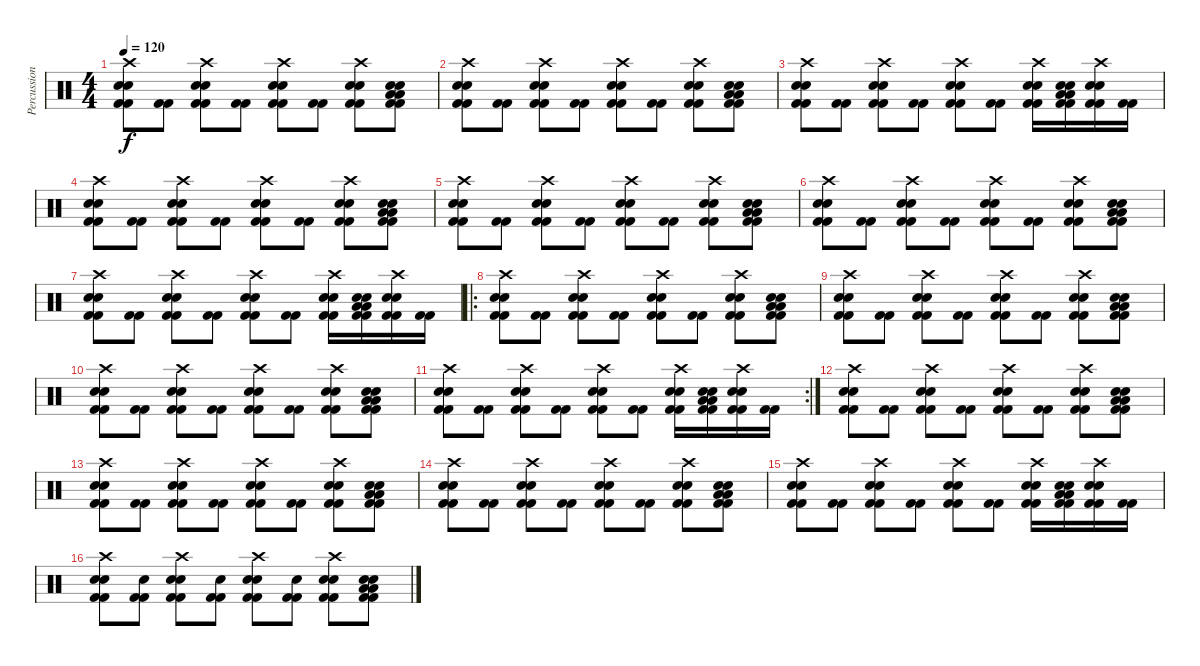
\track ("Percussions" "Percussion") {instrument percussion}
\staff {score}
\articulation defaults
\ts (4 4)
\tempo 120
\clef neutral
\ks c
("Crash high (hit)" "Electric Snare (hit)" "Electric Snare (hit)" "Kick (hit) 2" "Kick (hit) 2").8{dy f} ("Kick (hit) 2" "Kick (hit) 2").8 ("Crash high (hit)" "Electric Snare (hit)" "Electric Snare (hit)" "Kick (hit) 2" "Kick (hit) 2").8 ("Kick (hit) 2" "Kick (hit) 2").8 ("Crash high (hit)" "Electric Snare (hit)" "Electric Snare (hit)" "Kick (hit) 2" "Kick (hit) 2").8 ("Kick (hit) 2" "Kick (hit) 2").8 ("Crash high (hit)" "Electric Snare (hit)" "Electric Snare (hit)" "Kick (hit) 2" "Kick (hit) 2").8 ("Low Floor Tom (hit)" "Low Floor Tom (hit)" "Electric Snare (hit)" "Electric Snare (hit)" "Kick (hit) 2" "Kick (hit) 2").8 |
("Crash high (hit)" "Electric Snare (hit)" "Electric Snare (hit)" "Kick (hit) 2" "Kick (hit) 2").8 ("Kick (hit) 2" "Kick (hit) 2").8 ("Crash high (hit)" "Electric Snare (hit)" "Electric Snare (hit)" "Kick (hit) 2" "Kick (hit) 2").8 ("Kick (hit) 2" "Kick (hit) 2").8 ("Crash high (hit)" "Electric Snare (hit)" "Electric Snare (hit)" "Kick (hit) 2" "Kick (hit) 2").8 ("Kick (hit) 2" "Kick (hit) 2").8 ("Crash high (hit)" "Electric Snare (hit)" "Electric Snare (hit)" "Kick (hit) 2" "Kick (hit) 2").8 ("Low Floor Tom (hit)" "Low Floor Tom (hit)" "Electric Snare (hit)" "Electric Snare (hit)" "Kick (hit) 2" "Kick (hit) 2").8 |
("Crash high (hit)" "Electric Snare (hit)" "Electric Snare (hit)" "Kick (hit) 2" "Kick (hit) 2").8 ("Kick (hit) 2" "Kick (hit) 2").8 ("Crash high (hit)" "Electric Snare (hit)" "Electric Snare (hit)" "Kick (hit) 2" "Kick (hit) 2").8 ("Kick (hit) 2" "Kick (hit) 2").8 ("Crash high (hit)" "Electric Snare (hit)" "Electric Snare (hit)" "Kick (hit) 2" "Kick (hit) 2").8 ("Kick (hit) 2" "Kick (hit) 2").8 ("Crash high (hit)" "Electric Snare (hit)" "Electric Snare (hit)" "Kick (hit) 2" "Kick (hit) 2").16 ("Low Floor Tom (hit)" "Low Floor Tom (hit)" "Electric Snare (hit)" "Electric Snare (hit)" "Kick (hit) 2" "Kick (hit) 2").16 ("Crash high (hit)" "Electric Snare (hit)" "Electric Snare (hit)" "Kick (hit) 2" "Kick (hit) 2").16 ("Kick (hit) 2" "Kick (hit) 2").16 |
("Crash high (hit)" "Electric Snare (hit)" "Electric Snare (hit)" "Kick (hit) 2" "Kick (hit) 2").8 ("Kick (hit) 2" "Kick (hit) 2").8 ("Crash high (hit)" "Electric Snare (hit)" "Electric Snare (hit)" "Kick (hit) 2" "Kick (hit) 2").8 ("Kick (hit) 2" "Kick (hit) 2").8 ("Crash high (hit)" "Electric Snare (hit)" "Electric Snare (hit)" "Kick (hit) 2" "Kick (hit) 2").8 ("Kick (hit) 2" "Kick (hit) 2").8 ("Crash high (hit)" "Electric Snare (hit)" "Electric Snare (hit)" "Kick (hit) 2" "Kick (hit) 2").8 ("Low Floor Tom (hit)" "Low Floor Tom (hit)" "Electric Snare (hit)" "Electric Snare (hit)" "Kick (hit) 2" "Kick (hit) 2").8 |
("Crash high (hit)" "Electric Snare (hit)" "Electric Snare (hit)" "Kick (hit) 2" "Kick (hit) 2").8 ("Kick (hit) 2" "Kick (hit) 2").8 ("Crash high (hit)" "Electric Snare (hit)" "Electric Snare (hit)" "Kick (hit) 2" "Kick (hit) 2").8 ("Kick (hit) 2" "Kick (hit) 2").8 ("Crash high (hit)" "Electric Snare (hit)" "Electric Snare (hit)" "Kick (hit) 2" "Kick (hit) 2").8 ("Kick (hit) 2" "Kick (hit) 2").8 ("Crash high (hit)" "Electric Snare (hit)" "Electric Snare (hit)" "Kick (hit) 2" "Kick (hit) 2").8 ("Low Floor Tom (hit)" "Low Floor Tom (hit)" "Electric Snare (hit)" "Electric Snare (hit)" "Kick (hit) 2" "Kick (hit) 2").8 |
("Crash high (hit)" "Electric Snare (hit)" "Electric Snare (hit)" "Kick (hit) 2" "Kick (hit) 2").8 ("Kick (hit) 2" "Kick (hit) 2").8 ("Crash high (hit)" "Electric Snare (hit)" "Electric Snare (hit)" "Kick (hit) 2" "Kick (hit) 2").8 ("Kick (hit) 2" "Kick (hit) 2").8 ("Crash high (hit)" "Electric Snare (hit)" "Electric Snare (hit)" "Kick (hit) 2" "Kick (hit) 2").8 ("Kick (hit) 2" "Kick (hit) 2").8 ("Crash high (hit)" "Electric Snare (hit)" "Electric Snare (hit)" "Kick (hit) 2" "Kick (hit) 2").8 ("Low Floor Tom (hit)" "Low Floor Tom (hit)" "Electric Snare (hit)" "Electric Snare (hit)" "Kick (hit) 2" "Kick (hit) 2").8 |
("Crash high (hit)" "Electric Snare (hit)" "Electric Snare (hit)" "Kick (hit) 2" "Kick (hit) 2").8 ("Kick (hit) 2" "Kick (hit) 2").8 ("Crash high (hit)" "Electric Snare (hit)" "Electric Snare (hit)" "Kick (hit) 2" "Kick (hit) 2").8 ("Kick (hit) 2" "Kick (hit) 2").8 ("Crash high (hit)" "Electric Snare (hit)" "Electric Snare (hit)" "Kick (hit) 2" "Kick (hit) 2").8 ("Kick (hit) 2" "Kick (hit) 2").8 ("Crash high (hit)" "Electric Snare (hit)" "Electric Snare (hit)" "Kick (hit) 2" "Kick (hit) 2").16 ("Low Floor Tom (hit)" "Low Floor Tom (hit)" "Electric Snare (hit)" "Electric Snare (hit)" "Kick (hit) 2" "Kick (hit) 2").16 ("Crash high (hit)" "Electric Snare (hit)" "Electric Snare (hit)" "Kick (hit) 2" "Kick (hit) 2").16 ("Kick (hit) 2" "Kick (hit) 2").16 |
\ro
("Crash high (hit)" "Electric Snare (hit)" "Electric Snare (hit)" "Kick (hit) 2" "Kick (hit) 2").8 ("Kick (hit) 2" "Kick (hit) 2").8 ("Crash high (hit)" "Electric Snare (hit)" "Electric Snare (hit)" "Kick (hit) 2" "Kick (hit) 2").8 ("Kick (hit) 2" "Kick (hit) 2").8 ("Crash high (hit)" "Electric Snare (hit)" "Electric Snare (hit)" "Kick (hit) 2" "Kick (hit) 2").8 ("Kick (hit) 2" "Kick (hit) 2").8 ("Crash high (hit)" "Electric Snare (hit)" "Electric Snare (hit)" "Kick (hit) 2" "Kick (hit) 2").8 ("Low Floor Tom (hit)" "Low Floor Tom (hit)" "Electric Snare (hit)" "Electric Snare (hit)" "Kick (hit) 2" "Kick (hit) 2").8 |
("Crash high (hit)" "Electric Snare (hit)" "Electric Snare (hit)" "Kick (hit) 2" "Kick (hit) 2").8 ("Kick (hit) 2" "Kick (hit) 2").8 ("Crash high (hit)" "Electric Snare (hit)" "Electric Snare (hit)" "Kick (hit) 2" "Kick (hit) 2").8 ("Kick (hit) 2" "Kick (hit) 2").8 ("Crash high (hit)" "Electric Snare (hit)" "Electric Snare (hit)" "Kick (hit) 2" "Kick (hit) 2").8 ("Kick (hit) 2" "Kick (hit) 2").8 ("Crash high (hit)" "Electric Snare (hit)" "Electric Snare (hit)" "Kick (hit) 2" "Kick (hit) 2").8 ("Low Floor Tom (hit)" "Low Floor Tom (hit)" "Electric Snare (hit)" "Electric Snare (hit)" "Kick (hit) 2" "Kick (hit) 2").8 |
("Crash high (hit)" "Electric Snare (hit)" "Electric Snare (hit)" "Kick (hit) 2" "Kick (hit) 2").8 ("Kick (hit) 2" "Kick (hit) 2").8 ("Crash high (hit)" "Electric Snare (hit)" "Electric Snare (hit)" "Kick (hit) 2" "Kick (hit) 2").8 ("Kick (hit) 2" "Kick (hit) 2").8 ("Crash high (hit)" "Electric Snare (hit)" "Electric Snare (hit)" "Kick (hit) 2" "Kick (hit) 2").8 ("Kick (hit) 2" "Kick (hit) 2").8 ("Crash high (hit)" "Electric Snare (hit)" "Electric Snare (hit)" "Kick (hit) 2" "Kick (hit) 2").8 ("Low Floor Tom (hit)" "Low Floor Tom (hit)" "Electric Snare (hit)" "Electric Snare (hit)" "Kick (hit) 2" "Kick (hit) 2").8 |
\rc 2
("Crash high (hit)" "Electric Snare (hit)" "Electric Snare (hit)" "Kick (hit) 2" "Kick (hit) 2").8 ("Kick (hit) 2" "Kick (hit) 2").8 ("Crash high (hit)" "Electric Snare (hit)" "Electric Snare (hit)" "Kick (hit) 2" "Kick (hit) 2").8 ("Kick (hit) 2" "Kick (hit) 2").8 ("Crash high (hit)" "Electric Snare (hit)" "Electric Snare (hit)" "Kick (hit) 2" "Kick (hit) 2").8 ("Kick (hit) 2" "Kick (hit) 2").8 ("Crash high (hit)" "Electric Snare (hit)" "Electric Snare (hit)" "Kick (hit) 2" "Kick (hit) 2").16 ("Low Floor Tom (hit)" "Low Floor Tom (hit)" "Electric Snare (hit)" "Electric Snare (hit)" "Kick (hit) 2" "Kick (hit) 2").16 ("Crash high (hit)" "Electric Snare (hit)" "Electric Snare (hit)" "Kick (hit) 2" "Kick (hit) 2").16 ("Kick (hit) 2" "Kick (hit) 2").16 |
("Crash high (hit)" "Electric Snare (hit)" "Electric Snare (hit)" "Kick (hit) 2" "Kick (hit) 2").8 ("Kick (hit) 2" "Kick (hit) 2").8 ("Crash high (hit)" "Electric Snare (hit)" "Electric Snare (hit)" "Kick (hit) 2" "Kick (hit) 2").8 ("Kick (hit) 2" "Kick (hit) 2").8 ("Crash high (hit)" "Electric Snare (hit)" "Electric Snare (hit)" "Kick (hit) 2" "Kick (hit) 2").8 ("Kick (hit) 2" "Kick (hit) 2").8 ("Crash high (hit)" "Electric Snare (hit)" "Electric Snare (hit)" "Kick (hit) 2" "Kick (hit) 2").8 ("Low Floor Tom (hit)" "Low Floor Tom (hit)" "Electric Snare (hit)" "Electric Snare (hit)" "Kick (hit) 2" "Kick (hit) 2").8 |
("Crash high (hit)" "Electric Snare (hit)" "Electric Snare (hit)" "Kick (hit) 2" "Kick (hit) 2").8 ("Kick (hit) 2" "Kick (hit) 2").8 ("Crash high (hit)" "Electric Snare (hit)" "Electric Snare (hit)" "Kick (hit) 2" "Kick (hit) 2").8 ("Kick (hit) 2" "Kick (hit) 2").8 ("Crash high (hit)" "Electric Snare (hit)" "Electric Snare (hit)" "Kick (hit) 2" "Kick (hit) 2").8 ("Kick (hit) 2" "Kick (hit) 2").8 ("Crash high (hit)" "Electric Snare (hit)" "Electric Snare (hit)" "Kick (hit) 2" "Kick (hit) 2").8 ("Low Floor Tom (hit)" "Low Floor Tom (hit)" "Electric Snare (hit)" "Electric Snare (hit)" "Kick (hit) 2" "Kick (hit) 2").8 |
("Crash high (hit)" "Electric Snare (hit)" "Electric Snare (hit)" "Kick (hit) 2" "Kick (hit) 2").8 ("Kick (hit) 2" "Kick (hit) 2").8 ("Crash high (hit)" "Electric Snare (hit)" "Electric Snare (hit)" "Kick (hit) 2" "Kick (hit) 2").8 ("Kick (hit) 2" "Kick (hit) 2").8 ("Crash high (hit)" "Electric Snare (hit)" "Electric Snare (hit)" "Kick (hit) 2" "Kick (hit) 2").8 ("Kick (hit) 2" "Kick (hit) 2").8 ("Crash high (hit)" "Electric Snare (hit)" "Electric Snare (hit)" "Kick (hit) 2" "Kick (hit) 2").8 ("Low Floor Tom (hit)" "Low Floor Tom (hit)" "Electric Snare (hit)" "Electric Snare (hit)" "Kick (hit) 2" "Kick (hit) 2").8 |
("Crash high (hit)" "Electric Snare (hit)" "Electric Snare (hit)" "Kick (hit) 2" "Kick (hit) 2").8 ("Kick (hit) 2" "Kick (hit) 2").8 ("Crash high (hit)" "Electric Snare (hit)" "Electric Snare (hit)" "Kick (hit) 2" "Kick (hit) 2").8 ("Kick (hit) 2" "Kick (hit) 2").8 ("Crash high (hit)" "Electric Snare (hit)" "Electric Snare (hit)" "Kick (hit) 2" "Kick (hit) 2").8 ("Kick (hit) 2" "Kick (hit) 2").8 ("Crash high (hit)" "Electric Snare (hit)" "Electric Snare (hit)" "Kick (hit) 2" "Kick (hit) 2").16 ("Low Floor Tom (hit)" "Low Floor Tom (hit)" "Electric Snare (hit)" "Electric Snare (hit)" "Kick (hit) 2" "Kick (hit) 2").16 ("Crash high (hit)" "Electric Snare (hit)" "Electric Snare (hit)" "Kick (hit) 2" "Kick (hit) 2").16 ("Kick (hit) 2" "Kick (hit) 2").16 |
("Crash high (hit)" "Electric Snare (hit)" "Electric Snare (hit)" "Kick (hit) 2" "Kick (hit) 2").8 ("Electric Snare (hit)" "Kick (hit) 2" "Kick (hit) 2").8 ("Crash high (hit)" "Electric Snare (hit)" "Electric Snare (hit)" "Kick (hit) 2" "Kick (hit) 2").8 ("Electric Snare (hit)" "Kick (hit) 2" "Kick (hit) 2").8 ("Crash high (hit)" "Electric Snare (hit)" "Electric Snare (hit)" "Kick (hit) 2" "Kick (hit) 2").8 ("Electric Snare (hit)" "Kick (hit) 2" "Kick (hit) 2").8 ("Crash high (hit)" "Electric Snare (hit)" "Electric Snare (hit)" "Kick (hit) 2" "Kick (hit) 2").8 ("Low Floor Tom (hit)" "Low Floor Tom (hit)" "Electric Snare (hit)" "Electric Snare (hit)" "Kick (hit) 2" "Kick (hit) 2").8
